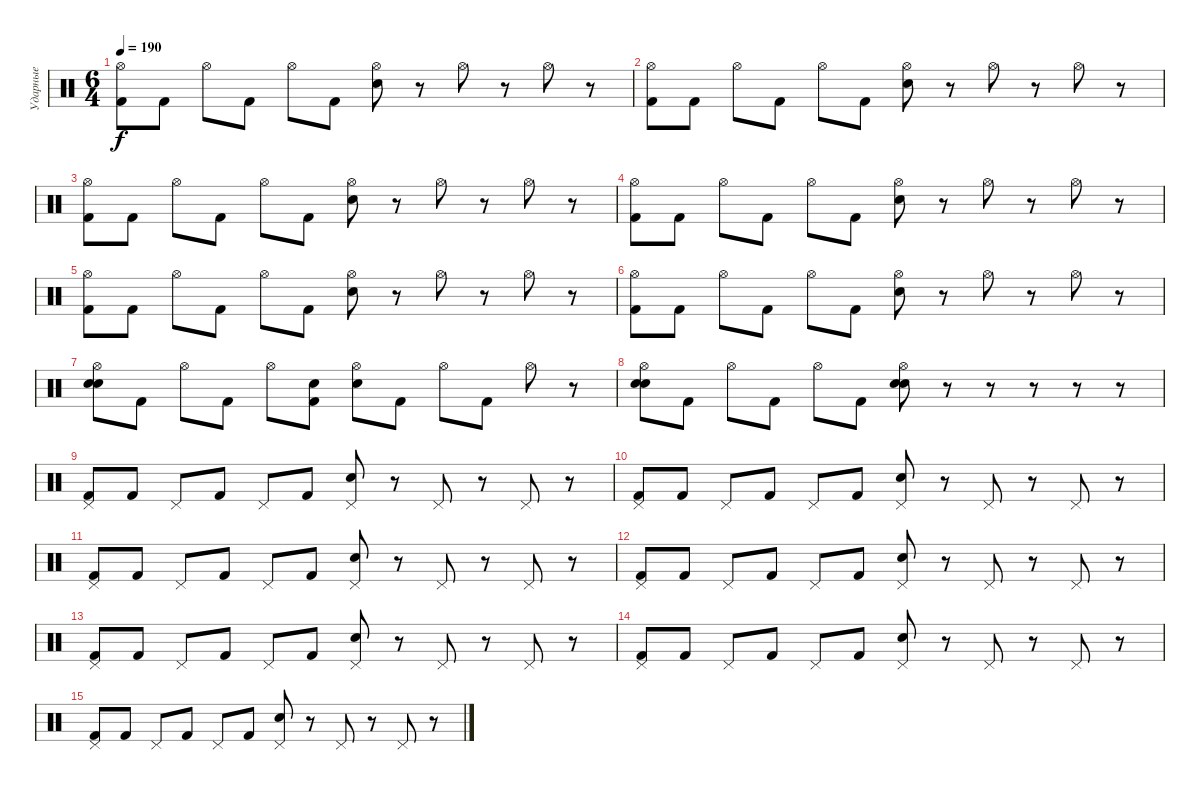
\track ("Ударные" "Ударные") {instrument percussion}
\staff {score}
\articulation defaults
\ts (6 4)
\tempo 190
\clef neutral
\ks c
("Hi-Hat (open)" "Kick (hit) 2").8{dy f} "Kick (hit) 2".8 "Hi-Hat (open)".8 "Kick (hit) 2".8 "Hi-Hat (open)".8 "Kick (hit) 2".8 ("Hi-Hat (open)" "Snare (hit) 2").8 r.8 "Hi-Hat (open)".8 r.8 "Hi-Hat (open)".8 r.8 |
("Hi-Hat (open)" "Kick (hit) 2").8 "Kick (hit) 2".8 "Hi-Hat (open)".8 "Kick (hit) 2".8 "Hi-Hat (open)".8 "Kick (hit) 2".8 ("Hi-Hat (open)" "Snare (hit) 2").8 r.8 "Hi-Hat (open)".8 r.8 "Hi-Hat (open)".8 r.8 |
("Hi-Hat (open)" "Kick (hit) 2").8 "Kick (hit) 2".8 "Hi-Hat (open)".8 "Kick (hit) 2".8 "Hi-Hat (open)".8 "Kick (hit) 2".8 ("Hi-Hat (open)" "Snare (hit) 2").8 r.8 "Hi-Hat (open)".8 r.8 "Hi-Hat (open)".8 r.8 |
("Hi-Hat (open)" "Kick (hit) 2").8 "Kick (hit) 2".8 "Hi-Hat (open)".8 "Kick (hit) 2".8 "Hi-Hat (open)".8 "Kick (hit) 2".8 ("Hi-Hat (open)" "Snare (hit) 2").8 r.8 "Hi-Hat (open)".8 r.8 "Hi-Hat (open)".8 r.8 |
("Hi-Hat (open)" "Kick (hit) 2").8 "Kick (hit) 2".8 "Hi-Hat (open)".8 "Kick (hit) 2".8 "Hi-Hat (open)".8 "Kick (hit) 2".8 ("Hi-Hat (open)" "Snare (hit) 2").8 r.8 "Hi-Hat (open)".8 r.8 "Hi-Hat (open)".8 r.8 |
("Hi-Hat (open)" "Kick (hit) 2").8 "Kick (hit) 2".8 "Hi-Hat (open)".8 "Kick (hit) 2".8 "Hi-Hat (open)".8 "Kick (hit) 2".8 ("Hi-Hat (open)" "Snare (hit) 2").8 r.8 "Hi-Hat (open)".8 r.8 "Hi-Hat (open)".8 r.8 |
("Electric Snare (hit)" "Hi-Hat (open)" "Snare (hit) 2").8 "Kick (hit) 2".8 "Hi-Hat (open)".8 "Kick (hit) 2".8 "Hi-Hat (open)".8 ("Electric Snare (hit)" "Kick (hit) 2").8 ("Hi-Hat (open)" "Snare (hit) 2").8 "Kick (hit) 2".8 "Hi-Hat (open)".8 "Kick (hit) 2".8 "Hi-Hat (open)".8 r.8 |
("Electric Snare (hit)" "Hi-Hat (open)" "Snare (hit) 2").8 "Kick (hit) 2".8 "Hi-Hat (open)".8 "Kick (hit) 2".8 "Hi-Hat (open)".8 "Kick (hit) 2".8 ("Electric Snare (hit)" "Hi-Hat (open)" "Snare (hit) 2").8 r.8 r.8 r.8 r.8 r.8 |
("Pedal Hi-Hat (hit)" "Kick (hit) 2").8 "Kick (hit) 2".8 "Pedal Hi-Hat (hit)".8 "Kick (hit) 2".8 "Pedal Hi-Hat (hit)".8 "Kick (hit) 2".8 ("Pedal Hi-Hat (hit)" "Snare (hit) 2").8 r.8 "Pedal Hi-Hat (hit)".8 r.8 "Pedal Hi-Hat (hit)".8 r.8 |
("Pedal Hi-Hat (hit)" "Kick (hit) 2").8 "Kick (hit) 2".8 "Pedal Hi-Hat (hit)".8 "Kick (hit) 2".8 "Pedal Hi-Hat (hit)".8 "Kick (hit) 2".8 ("Pedal Hi-Hat (hit)" "Snare (hit) 2").8 r.8 "Pedal Hi-Hat (hit)".8 r.8 "Pedal Hi-Hat (hit)".8 r.8 |
("Pedal Hi-Hat (hit)" "Kick (hit) 2").8 "Kick (hit) 2".8 "Pedal Hi-Hat (hit)".8 "Kick (hit) 2".8 "Pedal Hi-Hat (hit)".8 "Kick (hit) 2".8 ("Pedal Hi-Hat (hit)" "Snare (hit) 2").8 r.8 "Pedal Hi-Hat (hit)".8 r.8 "Pedal Hi-Hat (hit)".8 r.8 |
("Pedal Hi-Hat (hit)" "Kick (hit) 2").8 "Kick (hit) 2".8 "Pedal Hi-Hat (hit)".8 "Kick (hit) 2".8 "Pedal Hi-Hat (hit)".8 "Kick (hit) 2".8 ("Pedal Hi-Hat (hit)" "Snare (hit) 2").8 r.8 "Pedal Hi-Hat (hit)".8 r.8 "Pedal Hi-Hat (hit)".8 r.8 |
("Pedal Hi-Hat (hit)" "Kick (hit) 2").8 "Kick (hit) 2".8 "Pedal Hi-Hat (hit)".8 "Kick (hit) 2".8 "Pedal Hi-Hat (hit)".8 "Kick (hit) 2".8 ("Pedal Hi-Hat (hit)" "Snare (hit) 2").8 r.8 "Pedal Hi-Hat (hit)".8 r.8 "Pedal Hi-Hat (hit)".8 r.8 |
("Pedal Hi-Hat (hit)" "Kick (hit) 2").8 "Kick (hit) 2".8 "Pedal Hi-Hat (hit)".8 "Kick (hit) 2".8 "Pedal Hi-Hat (hit)".8 "Kick (hit) 2".8 ("Pedal Hi-Hat (hit)" "Snare (hit) 2").8 r.8 "Pedal Hi-Hat (hit)".8 r.8 "Pedal Hi-Hat (hit)".8 r.8 |
("Pedal Hi-Hat (hit)" "Kick (hit) 2").8 "Kick (hit) 2".8 "Pedal Hi-Hat (hit)".8 "Kick (hit) 2".8 "Pedal Hi-Hat (hit)".8 "Kick (hit) 2".8 ("Pedal Hi-Hat (hit)" "Snare (hit) 2").8 r.8 "Pedal Hi-Hat (hit)".8 r.8 "Pedal Hi-Hat (hit)".8 r.8
